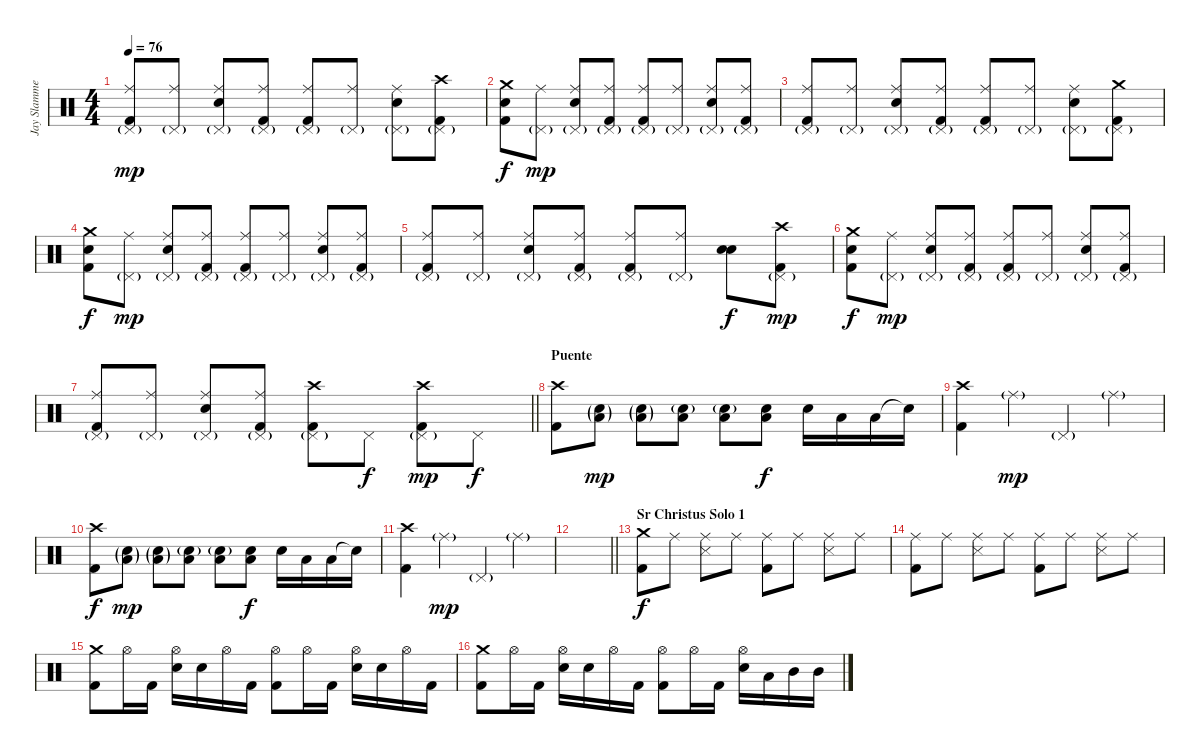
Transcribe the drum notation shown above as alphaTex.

\track ("Jay Slammer" "Jay Slamme") {instrument percussion}
\staff {score}
\articulation defaults
\ts (4 4)
\tempo 76
\clef neutral
\ks c
("Pedal Hi-Hat (hit)"{g} "Ride (middle)" "Kick (hit) 2").8{dy mp} ("Pedal Hi-Hat (hit)"{g} "Ride (middle)").8 ("Pedal Hi-Hat (hit)"{g} "Ride (middle)" "Electric Snare (hit)").8 ("Pedal Hi-Hat (hit)"{g} "Ride (middle)" "Kick (hit) 2").8 ("Pedal Hi-Hat (hit)"{g} "Ride (middle)" "Kick (hit) 2").8 ("Pedal Hi-Hat (hit)"{g} "Ride (middle)").8 ("Pedal Hi-Hat (hit)"{g} "Ride (middle)" "Electric Snare (hit)").8 ("Pedal Hi-Hat (hit)"{g} "Crash high (hit)" "Kick (hit) 2").8 |
("Snare (hit)" "Crash medium (hit)" "Kick (hit) 2").8{dy f} ("Pedal Hi-Hat (hit)"{g} "Ride (middle)").8{dy mp} ("Pedal Hi-Hat (hit)"{g} "Ride (middle)" "Electric Snare (hit)").8 ("Pedal Hi-Hat (hit)"{g} "Ride (middle)" "Kick (hit) 2").8 ("Pedal Hi-Hat (hit)"{g} "Ride (middle)" "Kick (hit) 2").8 ("Pedal Hi-Hat (hit)"{g} "Ride (middle)").8 ("Pedal Hi-Hat (hit)"{g} "Ride (middle)" "Electric Snare (hit)").8 ("Pedal Hi-Hat (hit)"{g} "Ride (middle)" "Kick (hit) 2").8 |
("Pedal Hi-Hat (hit)"{g} "Ride (middle)" "Kick (hit) 2").8 ("Pedal Hi-Hat (hit)"{g} "Ride (middle)").8 ("Pedal Hi-Hat (hit)"{g} "Ride (middle)" "Electric Snare (hit)").8 ("Pedal Hi-Hat (hit)"{g} "Ride (middle)" "Kick (hit) 2").8 ("Pedal Hi-Hat (hit)"{g} "Ride (middle)" "Kick (hit) 2").8 ("Pedal Hi-Hat (hit)"{g} "Ride (middle)").8 ("Pedal Hi-Hat (hit)"{g} "Ride (middle)" "Electric Snare (hit)").8 ("Pedal Hi-Hat (hit)"{g} "Crash medium (hit)" "Kick (hit) 2").8 |
("Snare (hit)" "Crash medium (hit)" "Kick (hit) 2").8{dy f} ("Pedal Hi-Hat (hit)"{g} "Ride (middle)").8{dy mp} ("Pedal Hi-Hat (hit)"{g} "Ride (middle)" "Electric Snare (hit)").8 ("Pedal Hi-Hat (hit)"{g} "Ride (middle)" "Kick (hit) 2").8 ("Pedal Hi-Hat (hit)"{g} "Ride (middle)" "Kick (hit) 2").8 ("Pedal Hi-Hat (hit)"{g} "Ride (middle)").8 ("Pedal Hi-Hat (hit)"{g} "Ride (middle)" "Electric Snare (hit)").8 ("Pedal Hi-Hat (hit)"{g} "Ride (middle)" "Kick (hit) 2").8 |
("Pedal Hi-Hat (hit)"{g} "Ride (middle)" "Kick (hit) 2").8 ("Pedal Hi-Hat (hit)"{g} "Ride (middle)").8 ("Pedal Hi-Hat (hit)"{g} "Ride (middle)" "Electric Snare (hit)").8 ("Pedal Hi-Hat (hit)"{g} "Ride (middle)" "Kick (hit) 2").8 ("Pedal Hi-Hat (hit)"{g} "Ride (middle)" "Kick (hit) 2").8 ("Pedal Hi-Hat (hit)"{g} "Ride (middle)").8 ("Electric Snare (hit)" "Electric Snare (hit)").8{bd 60 dy f} ("Pedal Hi-Hat (hit)"{g} "Crash high (hit)" "Kick (hit) 2").8{dy mp} |
("Snare (hit)" "Crash medium (hit)" "Kick (hit) 2").8{dy f} ("Pedal Hi-Hat (hit)"{g} "Ride (middle)").8{dy mp} ("Pedal Hi-Hat (hit)"{g} "Ride (middle)" "Electric Snare (hit)").8 ("Pedal Hi-Hat (hit)"{g} "Ride (middle)" "Kick (hit) 2").8 ("Pedal Hi-Hat (hit)"{g} "Ride (middle)" "Kick (hit) 2").8 ("Pedal Hi-Hat (hit)"{g} "Ride (middle)").8 ("Pedal Hi-Hat (hit)"{g} "Ride (middle)" "Electric Snare (hit)").8 ("Pedal Hi-Hat (hit)"{g} "Ride (middle)" "Kick (hit) 2").8 |
\barLineRight lightlight
("Pedal Hi-Hat (hit)"{g} "Ride (middle)" "Kick (hit) 2").8 ("Pedal Hi-Hat (hit)"{g} "Ride (middle)").8 ("Pedal Hi-Hat (hit)"{g} "Ride (middle)" "Electric Snare (hit)").8 ("Pedal Hi-Hat (hit)"{g} "Ride (middle)" "Kick (hit) 2").8 ("Pedal Hi-Hat (hit)"{g} "Crash high (hit)" "Kick (hit) 2").8 "Pedal Hi-Hat (hit)".8{dy f} ("Pedal Hi-Hat (hit)"{g} "Crash high (hit)" "Kick (hit) 2").8{dy mp} "Pedal Hi-Hat (hit)".8{dy f} |
\section ("" "Puente")
("Crash high (hit)" "Kick (hit) 2").8 ("Low Tom (hit)"{g} "Electric Snare (hit)"{g}).8{dy mp} ("Low Tom (hit)"{g} "Electric Snare (hit)"{g}).8 ("Low Tom (hit)" "Electric Snare (hit)"{g}).8 ("Low Tom (hit)" "Electric Snare (hit)"{g}).8 ("Low Tom (hit)" "Electric Snare (hit)").8{dy f} "Electric Snare (hit)".16 "Low Tom (hit)".16 "Low Tom (hit)".16 "Electric Snare (hit)"{t}.16 |
("Crash high (hit)" "Kick (hit) 2").4 "Ride (middle)"{g}.4{dy mp} "Pedal Hi-Hat (hit)"{g}.4 "Ride (middle)"{g}.4 |
("Crash high (hit)" "Kick (hit) 2").8{dy f} ("Low Tom (hit)"{g} "Electric Snare (hit)"{g}).8{dy mp} ("Low Tom (hit)"{g} "Electric Snare (hit)"{g}).8 ("Low Tom (hit)" "Electric Snare (hit)"{g}).8 ("Low Tom (hit)" "Electric Snare (hit)"{g}).8 ("Low Tom (hit)" "Electric Snare (hit)").8{dy f} "Electric Snare (hit)".16 "Low Tom (hit)".16 "Low Tom (hit)".16 "Electric Snare (hit)"{t}.16 |
("Crash high (hit)" "Kick (hit) 2").4 "Ride (middle)"{g}.4{dy mp} "Pedal Hi-Hat (hit)"{g}.4 "Ride (middle)"{g}.4 |
\barLineRight lightlight
|
\section ("" "Sr Christus Solo 1")
("Crash medium (hit)" "Kick (hit) 2").8{dy f} "Ride (middle)".8 ("Ride (middle)" "Metronome (hit)").8 "Ride (middle)".8 ("Ride (middle)" "Kick (hit) 2").8 "Ride (middle)".8 ("Ride (middle)" "Metronome (hit)").8 "Ride (middle)".8 |
("Ride (middle)" "Kick (hit) 2").8 "Ride (middle)".8 ("Ride (middle)" "Metronome (hit)").8 "Ride (middle)".8 ("Ride (middle)" "Kick (hit) 2").8 "Ride (middle)".8 ("Ride (middle)" "Metronome (hit)").8 "Ride (middle)".8 |
("Crash medium (hit)" "Kick (hit) 2").8 "Hi-Hat (open)".16 "Kick (hit) 2".16 ("Hi-Hat (open)" "Electric Snare (hit)").16 "Electric Snare (hit)".16 "Hi-Hat (open)".16 "Kick (hit) 2".16 ("Hi-Hat (open)" "Kick (hit) 2").8 "Hi-Hat (open)".16 "Kick (hit) 2".16 ("Hi-Hat (open)" "Electric Snare (hit)").16 "Electric Snare (hit)".16 "Hi-Hat (open)".16 "Kick (hit) 2".16 |
("Crash medium (hit)" "Kick (hit) 2").8 "Hi-Hat (open)".16 "Kick (hit) 2".16 ("Hi-Hat (open)" "Electric Snare (hit)").16 "Electric Snare (hit)".16 "Hi-Hat (open)".16 "Kick (hit) 2".16 ("Hi-Hat (open)" "Kick (hit) 2").8 "Hi-Hat (open)".16 "Kick (hit) 2".16 ("Hi-Hat (open)" "Electric Snare (hit)").16 "Low Tom (hit)".16 "Mid Tom (hit)".16 "Mid Tom (hit)".16
